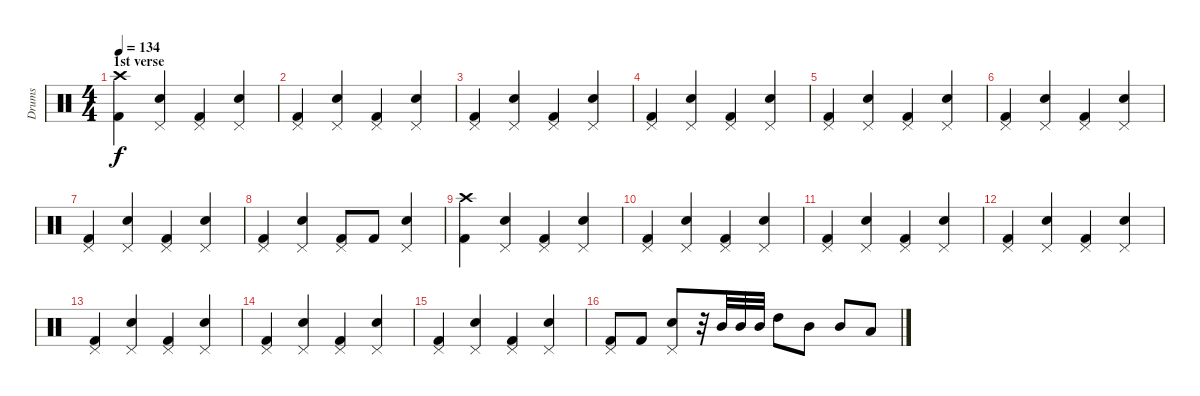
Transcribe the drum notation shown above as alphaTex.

\track ("Drums" "Drums") {instrument percussion}
\staff {score}
\articulation defaults
\ts (4 4)
\section ("" "1st verse")
\tempo 134
\clef neutral
\ks c
("Crash high (hit)" "Kick (hit) 2").4{dy f} ("Pedal Hi-Hat (hit)" "Snare (hit) 2").4 ("Pedal Hi-Hat (hit)" "Kick (hit) 2").4 ("Pedal Hi-Hat (hit)" "Snare (hit) 2").4 |
("Pedal Hi-Hat (hit)" "Kick (hit) 2").4 ("Pedal Hi-Hat (hit)" "Snare (hit) 2").4 ("Pedal Hi-Hat (hit)" "Kick (hit) 2").4 ("Pedal Hi-Hat (hit)" "Snare (hit) 2").4 |
("Pedal Hi-Hat (hit)" "Kick (hit) 2").4 ("Pedal Hi-Hat (hit)" "Snare (hit) 2").4 ("Pedal Hi-Hat (hit)" "Kick (hit) 2").4 ("Pedal Hi-Hat (hit)" "Snare (hit) 2").4 |
("Pedal Hi-Hat (hit)" "Kick (hit) 2").4 ("Pedal Hi-Hat (hit)" "Snare (hit) 2").4 ("Pedal Hi-Hat (hit)" "Kick (hit) 2").4 ("Pedal Hi-Hat (hit)" "Snare (hit) 2").4 |
("Pedal Hi-Hat (hit)" "Kick (hit) 2").4 ("Pedal Hi-Hat (hit)" "Snare (hit) 2").4 ("Pedal Hi-Hat (hit)" "Kick (hit) 2").4 ("Pedal Hi-Hat (hit)" "Snare (hit) 2").4 |
("Pedal Hi-Hat (hit)" "Kick (hit) 2").4 ("Pedal Hi-Hat (hit)" "Snare (hit) 2").4 ("Pedal Hi-Hat (hit)" "Kick (hit) 2").4 ("Pedal Hi-Hat (hit)" "Snare (hit) 2").4 |
("Pedal Hi-Hat (hit)" "Kick (hit) 2").4 ("Pedal Hi-Hat (hit)" "Snare (hit) 2").4 ("Pedal Hi-Hat (hit)" "Kick (hit) 2").4 ("Pedal Hi-Hat (hit)" "Snare (hit) 2").4 |
("Pedal Hi-Hat (hit)" "Kick (hit) 2").4 ("Pedal Hi-Hat (hit)" "Snare (hit) 2").4 ("Pedal Hi-Hat (hit)" "Kick (hit) 2").8 "Kick (hit) 2".8 ("Pedal Hi-Hat (hit)" "Snare (hit) 2").4 |
\section ("" "")
("Crash high (hit)" "Kick (hit) 2").4 ("Pedal Hi-Hat (hit)" "Snare (hit) 2").4 ("Pedal Hi-Hat (hit)" "Kick (hit) 2").4 ("Pedal Hi-Hat (hit)" "Snare (hit) 2").4 |
("Pedal Hi-Hat (hit)" "Kick (hit) 2").4 ("Pedal Hi-Hat (hit)" "Snare (hit) 2").4 ("Pedal Hi-Hat (hit)" "Kick (hit) 2").4 ("Pedal Hi-Hat (hit)" "Snare (hit) 2").4 |
("Pedal Hi-Hat (hit)" "Kick (hit) 2").4 ("Pedal Hi-Hat (hit)" "Snare (hit) 2").4 ("Pedal Hi-Hat (hit)" "Kick (hit) 2").4 ("Pedal Hi-Hat (hit)" "Snare (hit) 2").4 |
("Pedal Hi-Hat (hit)" "Kick (hit) 2").4 ("Pedal Hi-Hat (hit)" "Snare (hit) 2").4 ("Pedal Hi-Hat (hit)" "Kick (hit) 2").4 ("Pedal Hi-Hat (hit)" "Snare (hit) 2").4 |
("Pedal Hi-Hat (hit)" "Kick (hit) 2").4 ("Pedal Hi-Hat (hit)" "Snare (hit) 2").4 ("Pedal Hi-Hat (hit)" "Kick (hit) 2").4 ("Pedal Hi-Hat (hit)" "Snare (hit) 2").4 |
("Pedal Hi-Hat (hit)" "Kick (hit) 2").4 ("Pedal Hi-Hat (hit)" "Snare (hit) 2").4 ("Pedal Hi-Hat (hit)" "Kick (hit) 2").4 ("Pedal Hi-Hat (hit)" "Snare (hit) 2").4 |
("Pedal Hi-Hat (hit)" "Kick (hit) 2").4 ("Pedal Hi-Hat (hit)" "Snare (hit) 2").4 ("Pedal Hi-Hat (hit)" "Kick (hit) 2").4 ("Pedal Hi-Hat (hit)" "Snare (hit) 2").4 |
("Pedal Hi-Hat (hit)" "Kick (hit) 2").8 "Kick (hit) 2".8 ("Pedal Hi-Hat (hit)" "Snare (hit) 2").8 r.32 "Mid Tom (hit)".32 "Mid Tom (hit)".32 "Mid Tom (hit)".32 "High Tom (hit)".8 "Mid Tom (hit)".8 "Mid Tom (hit)".8 "Low Tom (hit)".8
